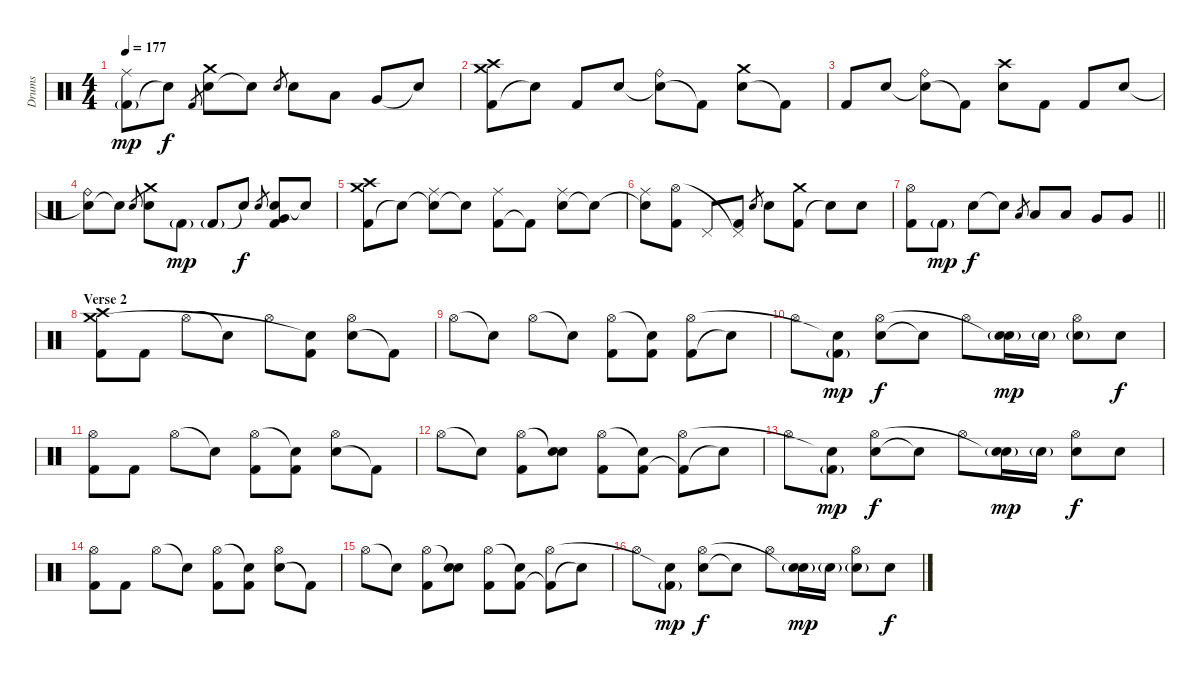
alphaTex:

\track ("Drums" "Drums") {instrument percussion}
\staff {score}
\articulation defaults
\ts (4 4)
\tempo 177
\clef neutral
\ks c
("Kick (hit) 2"{g} "Ride (middle)").8{dy mp} "Snare (hit)"{t}.8{dy f} "Kick (hit) 2".8{gr} ("Electric Snare (hit)" "Crash medium (hit)").8 "Snare (hit)"{t}.8 "Electric Snare (hit)".8{gr} "Electric Snare (hit)".8 "Low Tom (hit)".8 "Very Low Tom (hit)".8 "Snare (hit)"{t}.8 |
("Kick (hit) 2" "Crash medium (hit)" "Crash high (hit)").8 "Snare (hit)"{t}.8 "Kick (hit) 2".8 "Electric Snare (hit)".8 ("Snare (hit)"{t} "Ride (bell)").8 "Kick (hit) 2"{t}.8 ("Electric Snare (hit)" "Crash medium (hit)").8 "Kick (hit) 2"{t}.8 |
"Kick (hit) 2".8 "Electric Snare (hit)".8 ("Snare (hit)"{t} "Ride (bell)").8 "Kick (hit) 2"{t}.8 ("Electric Snare (hit)" "Crash high (hit)").8 "Kick (hit) 2".8 "Kick (hit) 2".8 "Electric Snare (hit)".8 |
("Snare (hit)"{t} "Ride (bell)").8 "Snare (hit)"{t}.8 "Electric Snare (hit)".8{gr} ("Electric Snare (hit)" "Crash medium (hit)").8 "Kick (hit) 2"{g}.8{dy mp} "Kick (hit) 2"{g}.8 "Snare (hit)"{t}.8{dy f} "Electric Snare (hit)".8{gr} ("Electric Snare (hit)" "Very Low Tom (hit)" "Kick (hit) 2").8 "Snare (hit)"{t}.8 |
("Kick (hit) 2" "Crash medium (hit)" "Crash high (hit)").8 "Snare (hit)"{t}.8 ("Snare (hit)"{t} "Ride (middle)").8 "Snare (hit)"{t}.8 ("Kick (hit) 2" "Ride (middle)").8 "Kick (hit) 2"{t}.8 ("Electric Snare (hit)" "Ride (middle)").8 "Snare (hit)"{t}.8 |
("Electric Snare (hit)"{t} "Ride (middle)").8 ("Kick (hit) 2" "Hi-Hat (open)").8 "Pedal Hi-Hat (hit)".8 ("Kick (hit) 2" "Pedal Hi-Hat (hit)"{t}).8 "Electric Snare (hit)".8{gr} "Electric Snare (hit)".8 ("Kick (hit) 2" "Crash medium (hit)").8 "Snare (hit)"{t}.8 "Electric Snare (hit)".8 |
\barLineRight lightlight
("Kick (hit) 2" "Hi-Hat (open)").8 "Kick (hit) 2"{g}.8{dy mp} "Electric Snare (hit)".8{dy f} "Electric Snare (hit)"{t}.8 "Low Tom (hit)".8{gr} "Low Tom (hit)".8 "Low Tom (hit)".8 "Very Low Tom (hit)".8 "Very Low Tom (hit)".8 |
\section ("" "Verse 2")
("Kick (hit) 2" "Crash medium (hit)" "Crash high (hit)").8 "Kick (hit) 2".8 "Hi-Hat (open)".8 "Snare (hit)"{t}.8 "Hi-Hat (open)".8 ("Kick (hit) 2" "Snare (hit)"{t}).8 ("Electric Snare (hit)" "Hi-Hat (open)").8 "Kick (hit) 2"{t}.8 |
"Hi-Hat (open)".8 "Snare (hit)"{t}.8 "Hi-Hat (open)".8 "Snare (hit)"{t}.8 ("Kick (hit) 2" "Hi-Hat (open)").8 ("Kick (hit) 2" "Snare (hit)"{t}).8 ("Kick (hit) 2" "Hi-Hat (open)").8 "Snare (hit)"{t}.8 |
"Hi-Hat (open)".8 ("Kick (hit) 2"{g} "Snare (hit)"{t}).8{dy mp} ("Electric Snare (hit)" "Hi-Hat (open)").8{dy f} "Snare (hit)"{t}.8 "Hi-Hat (open)".8 ("Electric Snare (hit)"{g} "Snare (hit)"{t}).16{dy mp} "Electric Snare (hit)"{g}.16 ("Electric Snare (hit)"{g} "Hi-Hat (open)").8 "Electric Snare (hit)".8{dy f} |
("Kick (hit) 2" "Hi-Hat (open)").8 "Kick (hit) 2".8 "Hi-Hat (open)".8 "Snare (hit)"{t}.8 ("Kick (hit) 2" "Hi-Hat (open)").8 ("Kick (hit) 2" "Snare (hit)"{t}).8 ("Electric Snare (hit)" "Hi-Hat (open)").8 "Kick (hit) 2"{t}.8 |
"Hi-Hat (open)".8 "Snare (hit)"{t}.8 ("Kick (hit) 2" "Hi-Hat (open)").8 ("Electric Snare (hit)" "Snare (hit)"{t}).8 ("Kick (hit) 2" "Hi-Hat (open)").8 ("Kick (hit) 2" "Snare (hit)"{t}).8 ("Kick (hit) 2"{t} "Hi-Hat (open)").8 "Snare (hit)"{t}.8 |
"Hi-Hat (open)".8 ("Kick (hit) 2"{g} "Snare (hit)"{t}).8{dy mp} ("Electric Snare (hit)" "Hi-Hat (open)").8{dy f} "Snare (hit)"{t}.8 "Hi-Hat (open)".8 ("Electric Snare (hit)"{g} "Snare (hit)"{t}).16{dy mp} "Electric Snare (hit)"{g}.16 ("Electric Snare (hit)" "Hi-Hat (open)").8{dy f} "Electric Snare (hit)".8 |
("Kick (hit) 2" "Hi-Hat (open)").8 "Kick (hit) 2".8 "Hi-Hat (open)".8 "Snare (hit)"{t}.8 ("Kick (hit) 2" "Hi-Hat (open)").8 ("Kick (hit) 2" "Snare (hit)"{t}).8 ("Electric Snare (hit)" "Hi-Hat (open)").8 "Kick (hit) 2"{t}.8 |
"Hi-Hat (open)".8 "Snare (hit)"{t}.8 ("Kick (hit) 2" "Hi-Hat (open)").8 ("Electric Snare (hit)" "Snare (hit)"{t}).8 ("Kick (hit) 2" "Hi-Hat (open)").8 ("Kick (hit) 2" "Snare (hit)"{t}).8 ("Kick (hit) 2"{t} "Hi-Hat (open)").8 "Snare (hit)"{t}.8 |
"Hi-Hat (open)".8 ("Kick (hit) 2"{g} "Snare (hit)"{t}).8{dy mp} ("Electric Snare (hit)" "Hi-Hat (open)").8{dy f} "Snare (hit)"{t}.8 "Hi-Hat (open)".8 ("Electric Snare (hit)"{g} "Snare (hit)"{t}).16{dy mp} "Electric Snare (hit)"{g}.16 ("Electric Snare (hit)"{g} "Hi-Hat (open)").8 "Electric Snare (hit)".8{dy f}
